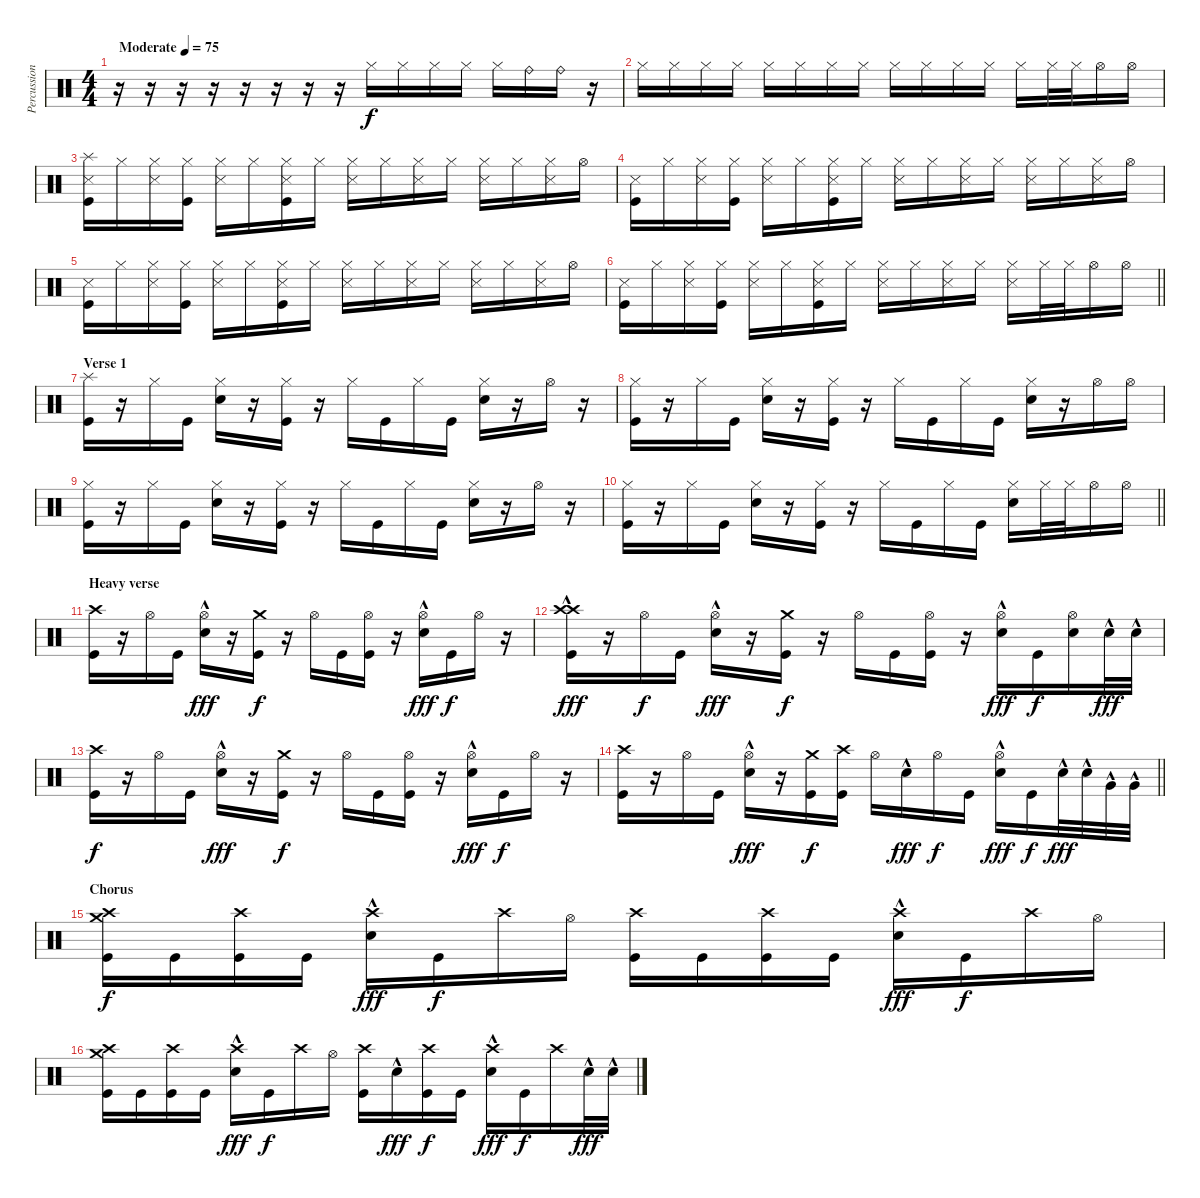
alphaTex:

\track ("Percussion" "Percussion") {instrument percussion}
\staff {score}
\articulation defaults
\ts (4 4)
\tempo (75 "Moderate")
\clef neutral
\ks c
r.16{dy f} r.16 r.16 r.16 r.16 r.16 r.16 r.16 "Hi-Hat (closed)".16 "Hi-Hat (closed)".16 "Hi-Hat (closed)".16 "Hi-Hat (closed)".16 "Hi-Hat (closed)".16 "Ride (bell)".16 "Ride (bell)".16 r.16 |
"Hi-Hat (closed)".16 "Hi-Hat (closed)".16 "Hi-Hat (closed)".16 "Hi-Hat (closed)".16 "Hi-Hat (closed)".16 "Hi-Hat (closed)".16 "Hi-Hat (closed)".16 "Hi-Hat (closed)".16 "Hi-Hat (closed)".16 "Hi-Hat (closed)".16 "Hi-Hat (closed)".16 "Hi-Hat (closed)".16 "Hi-Hat (closed)".16 "Hi-Hat (closed)".32 "Hi-Hat (closed)".32 "Hi-Hat (open)".16 "Hi-Hat (open)".16 |
("Snare (side stick) 3" "Splash (hit)" "Kick (hit)").16 "Hi-Hat (closed)".16 ("Hi-Hat (closed)" "Snare (side stick) 3").16 ("Hi-Hat (closed)" "Kick (hit)").16 ("Hi-Hat (closed)" "Snare (side stick) 3").16 "Hi-Hat (closed)".16 ("Kick (hit)" "Hi-Hat (closed)" "Snare (side stick) 3").16 "Hi-Hat (closed)".16 ("Hi-Hat (closed)" "Snare (side stick) 3").16 "Hi-Hat (closed)".16 ("Hi-Hat (closed)" "Snare (side stick) 3").16 "Hi-Hat (closed)".16 ("Hi-Hat (closed)" "Snare (side stick) 3").16 "Hi-Hat (closed)".16 ("Hi-Hat (closed)" "Snare (side stick) 3").16 "Hi-Hat (open)".16 |
("Snare (side stick) 3" "Kick (hit)").16 "Hi-Hat (closed)".16 ("Hi-Hat (closed)" "Snare (side stick) 3").16 ("Hi-Hat (closed)" "Kick (hit)").16 ("Hi-Hat (closed)" "Snare (side stick) 3").16 "Hi-Hat (closed)".16 ("Kick (hit)" "Hi-Hat (closed)" "Snare (side stick) 3").16 "Hi-Hat (closed)".16 ("Hi-Hat (closed)" "Snare (side stick) 3").16 "Hi-Hat (closed)".16 ("Hi-Hat (closed)" "Snare (side stick) 3").16 "Hi-Hat (closed)".16 ("Hi-Hat (closed)" "Snare (side stick) 3").16 "Hi-Hat (closed)".16 ("Hi-Hat (closed)" "Snare (side stick) 3").16 "Hi-Hat (open)".16 |
("Snare (side stick) 3" "Kick (hit)").16 "Hi-Hat (closed)".16 ("Hi-Hat (closed)" "Snare (side stick) 3").16 ("Hi-Hat (closed)" "Kick (hit)").16 ("Hi-Hat (closed)" "Snare (side stick) 3").16 "Hi-Hat (closed)".16 ("Kick (hit)" "Hi-Hat (closed)" "Snare (side stick) 3").16 "Hi-Hat (closed)".16 ("Hi-Hat (closed)" "Snare (side stick) 3").16 "Hi-Hat (closed)".16 ("Hi-Hat (closed)" "Snare (side stick) 3").16 "Hi-Hat (closed)".16 ("Hi-Hat (closed)" "Snare (side stick) 3").16 "Hi-Hat (closed)".16 ("Hi-Hat (closed)" "Snare (side stick) 3").16 "Hi-Hat (open)".16 |
\barLineRight lightlight
("Snare (side stick) 3" "Kick (hit)").16 "Hi-Hat (closed)".16 ("Hi-Hat (closed)" "Snare (side stick) 3").16 ("Hi-Hat (closed)" "Kick (hit)").16 ("Hi-Hat (closed)" "Snare (side stick) 3").16 "Hi-Hat (closed)".16 ("Kick (hit)" "Hi-Hat (closed)" "Snare (side stick) 3").16 "Hi-Hat (closed)".16 ("Hi-Hat (closed)" "Snare (side stick) 3").16 "Hi-Hat (closed)".16 ("Hi-Hat (closed)" "Snare (side stick) 3").16 "Hi-Hat (closed)".16 ("Hi-Hat (closed)" "Snare (side stick) 3").16 "Hi-Hat (closed)".32 "Hi-Hat (closed)".32 "Hi-Hat (open)".16 "Hi-Hat (open)".16 |
\section ("" "Verse 1")
("Splash (hit)" "Kick (hit)").16 r.16 "Hi-Hat (closed)".16 "Kick (hit)".16 ("Hi-Hat (closed)" "Electric Snare (hit)").16 r.16 ("Hi-Hat (closed)" "Kick (hit)").16 r.16 "Hi-Hat (closed)".16 "Kick (hit)".16 "Hi-Hat (closed)".16 "Kick (hit)".16 ("Hi-Hat (closed)" "Electric Snare (hit)").16 r.16 "Hi-Hat (open)".16 r.16 |
("Hi-Hat (closed)" "Kick (hit)").16 r.16 "Hi-Hat (closed)".16 "Kick (hit)".16 ("Hi-Hat (closed)" "Electric Snare (hit)").16 r.16 ("Hi-Hat (closed)" "Kick (hit)").16 r.16 "Hi-Hat (closed)".16 "Kick (hit)".16 "Hi-Hat (closed)".16 "Kick (hit)".16 ("Hi-Hat (closed)" "Electric Snare (hit)").16 r.16 "Hi-Hat (open)".16 "Hi-Hat (open)".16 |
("Hi-Hat (closed)" "Kick (hit)").16 r.16 "Hi-Hat (closed)".16 "Kick (hit)".16 ("Hi-Hat (closed)" "Electric Snare (hit)").16 r.16 ("Hi-Hat (closed)" "Kick (hit)").16 r.16 "Hi-Hat (closed)".16 "Kick (hit)".16 "Hi-Hat (closed)".16 "Kick (hit)".16 ("Hi-Hat (closed)" "Electric Snare (hit)").16 r.16 "Hi-Hat (open)".16 r.16 |
\barLineRight lightlight
("Hi-Hat (closed)" "Kick (hit)").16 r.16 "Hi-Hat (closed)".16 "Kick (hit)".16 ("Hi-Hat (closed)" "Electric Snare (hit)").16 r.16 ("Hi-Hat (closed)" "Kick (hit)").16 r.16 "Hi-Hat (closed)".16 "Kick (hit)".16 "Hi-Hat (closed)".16 "Kick (hit)".16 ("Hi-Hat (closed)" "Electric Snare (hit)").16 "Hi-Hat (closed)".32 "Hi-Hat (closed)".32 "Hi-Hat (open)".16 "Hi-Hat (open)".16 |
\section ("" "Heavy verse")
("Crash high (hit)" "Kick (hit)").16 r.16 "Hi-Hat (open)".16 "Kick (hit)".16 ("Hi-Hat (open)" "Electric Snare (hit)"{hac}).16{dy fff} r.16 ("Crash medium (hit)" "Kick (hit)").16{dy f} r.16 "Hi-Hat (open)".16 "Kick (hit)".16 ("Hi-Hat (open)" "Kick (hit)").16 r.16 ("Hi-Hat (open)" "Electric Snare (hit)"{hac}).16{dy fff} "Kick (hit)".16{dy f} "Hi-Hat (open)".16 r.16 |
("Crash high (hit)" "Crash high (hit)"{hac} "Kick (hit)").16{dy fff} r.16 "Hi-Hat (open)".16{dy f} "Kick (hit)".16 ("Hi-Hat (open)" "Electric Snare (hit)"{hac}).16{dy fff} r.16 ("Crash medium (hit)" "Kick (hit)").16{dy f} r.16 "Hi-Hat (open)".16 "Kick (hit)".16 ("Hi-Hat (open)" "Kick (hit)").16 r.16 ("Hi-Hat (open)" "Electric Snare (hit)"{hac}).16{dy fff} "Kick (hit)".16{dy f} ("Hi-Hat (open)" "Electric Snare (hit)").16 "Electric Snare (hit)"{hac}.32{dy fff} "Electric Snare (hit)"{hac}.32 |
("Crash high (hit)" "Kick (hit)").16{dy f} r.16 "Hi-Hat (open)".16 "Kick (hit)".16 ("Hi-Hat (open)" "Electric Snare (hit)"{hac}).16{dy fff} r.16 ("Crash medium (hit)" "Kick (hit)").16{dy f} r.16 "Hi-Hat (open)".16 "Kick (hit)".16 ("Hi-Hat (open)" "Kick (hit)").16 r.16 ("Hi-Hat (open)" "Electric Snare (hit)"{hac}).16{dy fff} "Kick (hit)".16{dy f} "Hi-Hat (open)".16 r.16 |
\barLineRight lightlight
("Crash high (hit)" "Kick (hit)").16 r.16 "Hi-Hat (open)".16 "Kick (hit)".16 ("Hi-Hat (open)" "Electric Snare (hit)"{hac}).16{dy fff} r.16 ("Crash medium (hit)" "Kick (hit)").16{dy f} ("Crash high (hit)" "Kick (hit)").16 "Hi-Hat (open)".16 "Electric Snare (hit)"{hac}.16{dy fff} "Hi-Hat (open)".16{dy f} "Kick (hit)".16 ("Hi-Hat (open)" "Electric Snare (hit)"{hac}).16{dy fff} "Kick (hit)".16{dy f} "Electric Snare (hit)"{hac}.32{dy fff} "Electric Snare (hit)"{hac}.32 "Very Low Tom (hit)"{hac}.32 "Very Low Tom (hit)"{hac}.32 |
\section ("" "Chorus")
("Crash medium (hit)" "Crash high (hit)" "Kick (hit)").16{dy f} "Kick (hit)".16 ("Crash high (hit)" "Kick (hit)").16 "Kick (hit)".16 ("Crash high (hit)" "Electric Snare (hit)"{hac}).16{dy fff} "Kick (hit)".16{dy f} "Crash high (hit)".16 "Hi-Hat (open)".16 ("Crash high (hit)" "Kick (hit)").16 "Kick (hit)".16 ("Crash high (hit)" "Kick (hit)").16 "Kick (hit)".16 ("Crash high (hit)" "Electric Snare (hit)"{hac}).16{dy fff} "Kick (hit)".16{dy f} "Crash high (hit)".16 "Hi-Hat (open)".16 |
("Crash medium (hit)" "Crash high (hit)" "Kick (hit)").16 "Kick (hit)".16 ("Crash high (hit)" "Kick (hit)").16 "Kick (hit)".16 ("Crash high (hit)" "Electric Snare (hit)"{hac}).16{dy fff} "Kick (hit)".16{dy f} "Crash high (hit)".16 "Hi-Hat (open)".16 ("Crash high (hit)" "Kick (hit)").16 "Electric Snare (hit)"{hac}.16{dy fff} ("Crash high (hit)" "Kick (hit)").16{dy f} "Kick (hit)".16 ("Crash high (hit)" "Electric Snare (hit)"{hac}).16{dy fff} "Kick (hit)".16{dy f} "Crash high (hit)".16 "Electric Snare (hit)"{hac}.32{dy fff} "Electric Snare (hit)"{hac}.32
